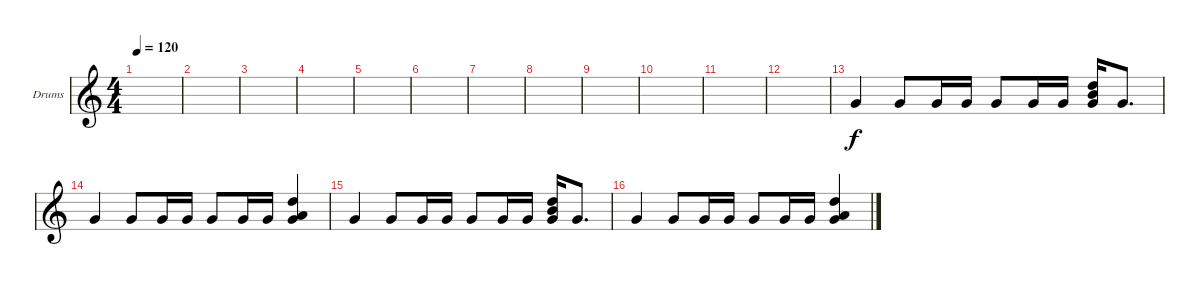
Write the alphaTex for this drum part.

\defaultSystemsLayout 4
\bracketExtendMode groupsimilarinstruments
\firstSystemTrackNameOrientation horizontal
\otherSystemsTrackNameOrientation horizontal
\track ("Drumkit" "Drums") {instrument percussion}
\staff {score}
\articulation defaults
\ts (4 4)
\tempo 120
\clef g2
\scale
0.333333
\ks c
|
\scale
0.333333 |
\scale
0.333333 |
\scale
0.333333 |
\scale
0.333333 |
\scale
0.333333 |
\scale
0.333333 |
\scale
0.333333 |
\scale
0.333333 |
\scale
0.333333 |
\scale
0.333333 |
\scale
0.333333 |
\scale
0.333333 "Very Low Tom (hit)".4 "Very Low Tom (hit)".8 "Very Low Tom (hit)".16 "Very Low Tom (hit)".16 "Very Low Tom (hit)".8 "Very Low Tom (hit)".16 "Very Low Tom (hit)".16 ("Very Low Tom (hit)" "High Tom (hit)" "Mid Tom (hit)").16 "Very Low Tom (hit)".8{d} |
\scale
0.333333 "Very Low Tom (hit)".4 "Very Low Tom (hit)".8 "Very Low Tom (hit)".16 "Very Low Tom (hit)".16 "Very Low Tom (hit)".8 "Very Low Tom (hit)".16 "Very Low Tom (hit)".16 ("Very Low Tom (hit)" "Low Tom (hit)" "High Tom (hit)").4 |
\scale
0.333333 "Very Low Tom (hit)".4 "Very Low Tom (hit)".8 "Very Low Tom (hit)".16 "Very Low Tom (hit)".16 "Very Low Tom (hit)".8 "Very Low Tom (hit)".16 "Very Low Tom (hit)".16 ("Very Low Tom (hit)" "High Tom (hit)" "Mid Tom (hit)").16 "Very Low Tom (hit)".8{d} |
\scale
0.333333 "Very Low Tom (hit)".4 "Very Low Tom (hit)".8 "Very Low Tom (hit)".16 "Very Low Tom (hit)".16 "Very Low Tom (hit)".8 "Very Low Tom (hit)".16 "Very Low Tom (hit)".16 ("Very Low Tom (hit)" "Low Tom (hit)" "High Tom (hit)").4
